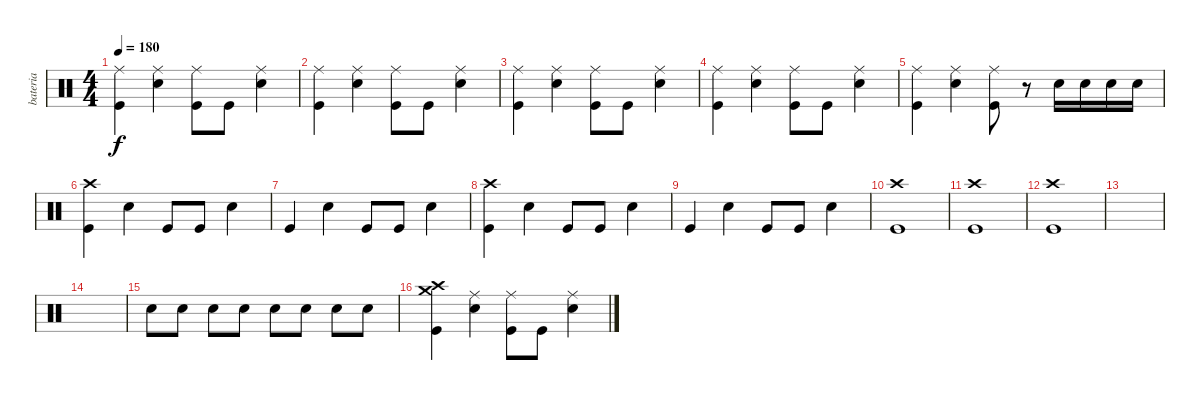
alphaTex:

\track ("bateria" "bateria") {instrument percussion}
\staff {score}
\articulation defaults
\ts (4 4)
\tempo 180
\clef neutral
\ks c
("Ride (middle)" "Kick (hit)").4{dy f} ("Ride (middle)" "Electric Snare (hit)").4 ("Ride (middle)" "Kick (hit)").8 "Kick (hit)".8 ("Ride (middle)" "Electric Snare (hit)").4 |
("Ride (middle)" "Kick (hit)").4 ("Ride (middle)" "Electric Snare (hit)").4 ("Ride (middle)" "Kick (hit)").8 "Kick (hit)".8 ("Ride (middle)" "Electric Snare (hit)").4 |
("Ride (middle)" "Kick (hit)").4 ("Ride (middle)" "Electric Snare (hit)").4 ("Ride (middle)" "Kick (hit)").8 "Kick (hit)".8 ("Ride (middle)" "Electric Snare (hit)").4 |
("Ride (middle)" "Kick (hit)").4 ("Ride (middle)" "Electric Snare (hit)").4 ("Ride (middle)" "Kick (hit)").8 "Kick (hit)".8 ("Ride (middle)" "Electric Snare (hit)").4 |
("Ride (middle)" "Kick (hit)").4 ("Ride (middle)" "Electric Snare (hit)").4 ("Ride (middle)" "Kick (hit)").8 r.8 "Electric Snare (hit)".16 "Electric Snare (hit)".16 "Electric Snare (hit)".16 "Electric Snare (hit)".16 |
("Crash high (hit)" "Kick (hit)").4 "Electric Snare (hit)".4 "Kick (hit)".8 "Kick (hit)".8 "Electric Snare (hit)".4 |
"Kick (hit)".4 "Electric Snare (hit)".4 "Kick (hit)".8 "Kick (hit)".8 "Electric Snare (hit)".4 |
("Crash high (hit)" "Kick (hit)").4 "Electric Snare (hit)".4 "Kick (hit)".8 "Kick (hit)".8 "Electric Snare (hit)".4 |
"Kick (hit)".4 "Electric Snare (hit)".4 "Kick (hit)".8 "Kick (hit)".8 "Electric Snare (hit)".4 |
("Crash high (hit)" "Kick (hit)").1 |
("Crash high (hit)" "Kick (hit)").1 |
("Crash high (hit)" "Kick (hit)").1 |
|
|
"Electric Snare (hit)".8{volume 2} "Electric Snare (hit)".8{volume 4} "Electric Snare (hit)".8{volume 5} "Electric Snare (hit)".8{volume 6} "Electric Snare (hit)".8{volume 8} "Electric Snare (hit)".8{volume 10} "Electric Snare (hit)".8{volume 12} "Electric Snare (hit)".8{volume 16} |
("Crash medium (hit)" "Crash high (hit)" "Kick (hit)").4 ("Ride (middle)" "Electric Snare (hit)").4 ("Ride (middle)" "Kick (hit)").8 "Kick (hit)".8 ("Ride (middle)" "Electric Snare (hit)").4
